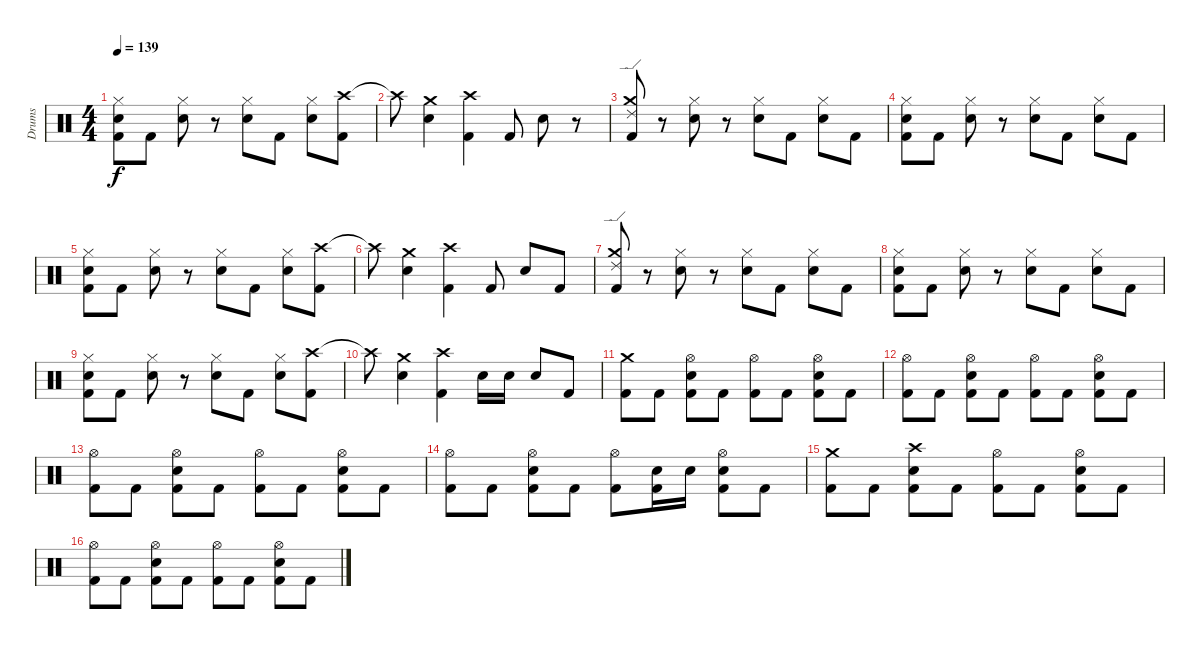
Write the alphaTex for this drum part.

\track ("Drums" "Drums") {instrument percussion}
\staff {score}
\articulation defaults
\ts (4 4)
\tempo 139
\clef neutral
\ks c
("Hi-Hat (closed)" "Electric Snare (hit)" "Kick (hit) 2").8{dy f} "Kick (hit) 2".8 ("Hi-Hat (closed)" "Electric Snare (hit)").8 r.8 ("Hi-Hat (closed)" "Electric Snare (hit)").8 "Kick (hit) 2".8 ("Hi-Hat (closed)" "Electric Snare (hit)").8 ("Crash high (hit)" "Kick (hit) 2").8 |
"Crash high (hit)"{t}.8 ("Crash medium (hit)" "Hand Clap (hit)").4 ("Crash high (hit)" "Kick (hit) 2").4 "Kick (hit) 2".8 "Electric Snare (hit)".8 r.8 |
("Ride (edge) 2" "Crash medium (hit)" "Kick (hit) 2").8 r.8 ("Hi-Hat (closed)" "Electric Snare (hit)").8 r.8 ("Hi-Hat (closed)" "Electric Snare (hit)").8 "Kick (hit) 2".8 ("Hi-Hat (closed)" "Electric Snare (hit)").8 "Kick (hit) 2".8 |
("Hi-Hat (closed)" "Electric Snare (hit)" "Kick (hit) 2").8 "Kick (hit) 2".8 ("Hi-Hat (closed)" "Electric Snare (hit)").8 r.8 ("Hi-Hat (closed)" "Electric Snare (hit)").8 "Kick (hit) 2".8 ("Hi-Hat (closed)" "Electric Snare (hit)").8 "Kick (hit) 2".8 |
("Hi-Hat (closed)" "Electric Snare (hit)" "Kick (hit) 2").8 "Kick (hit) 2".8 ("Hi-Hat (closed)" "Electric Snare (hit)").8 r.8 ("Hi-Hat (closed)" "Electric Snare (hit)").8 "Kick (hit) 2".8 ("Hi-Hat (closed)" "Electric Snare (hit)").8 ("Crash high (hit)" "Kick (hit) 2").8 |
"Crash high (hit)"{t}.8 ("Crash medium (hit)" "Hand Clap (hit)").4 ("Crash high (hit)" "Kick (hit) 2").4 "Kick (hit) 2".8 "Electric Snare (hit)".8 "Kick (hit) 2".8 |
("Ride (edge) 2" "Crash medium (hit)" "Kick (hit) 2").8 r.8 ("Hi-Hat (closed)" "Electric Snare (hit)").8 r.8 ("Hi-Hat (closed)" "Electric Snare (hit)").8 "Kick (hit) 2".8 ("Hi-Hat (closed)" "Electric Snare (hit)").8 "Kick (hit) 2".8 |
("Hi-Hat (closed)" "Electric Snare (hit)" "Kick (hit) 2").8 "Kick (hit) 2".8 ("Hi-Hat (closed)" "Electric Snare (hit)").8 r.8 ("Hi-Hat (closed)" "Electric Snare (hit)").8 "Kick (hit) 2".8 ("Hi-Hat (closed)" "Electric Snare (hit)").8 "Kick (hit) 2".8 |
("Hi-Hat (closed)" "Electric Snare (hit)" "Kick (hit) 2").8 "Kick (hit) 2".8 ("Hi-Hat (closed)" "Electric Snare (hit)").8 r.8 ("Hi-Hat (closed)" "Electric Snare (hit)").8 "Kick (hit) 2".8 ("Hi-Hat (closed)" "Electric Snare (hit)").8 ("Crash high (hit)" "Kick (hit) 2").8 |
"Crash high (hit)"{t}.8 ("Crash medium (hit)" "Hand Clap (hit)").4 ("Crash high (hit)" "Kick (hit) 2").4 "Electric Snare (hit)".16 "Electric Snare (hit)".16 "Electric Snare (hit)".8 "Kick (hit) 2".8 |
("Crash medium (hit)" "Kick (hit) 2").8 "Kick (hit) 2".8 ("Hi-Hat (open)" "Electric Snare (hit)" "Kick (hit) 2").8 "Kick (hit) 2".8 ("Hi-Hat (open)" "Kick (hit) 2").8 "Kick (hit) 2".8 ("Hi-Hat (open)" "Electric Snare (hit)" "Kick (hit) 2").8 "Kick (hit) 2".8 |
("Hi-Hat (open)" "Kick (hit) 2").8 "Kick (hit) 2".8 ("Hi-Hat (open)" "Electric Snare (hit)" "Kick (hit) 2").8 "Kick (hit) 2".8 ("Hi-Hat (open)" "Kick (hit) 2").8 "Kick (hit) 2".8 ("Hi-Hat (open)" "Electric Snare (hit)" "Kick (hit) 2").8 "Kick (hit) 2".8 |
("Hi-Hat (open)" "Kick (hit) 2").8 "Kick (hit) 2".8 ("Hi-Hat (open)" "Electric Snare (hit)" "Kick (hit) 2").8 "Kick (hit) 2".8 ("Hi-Hat (open)" "Kick (hit) 2").8 "Kick (hit) 2".8 ("Hi-Hat (open)" "Electric Snare (hit)" "Kick (hit) 2").8 "Kick (hit) 2".8 |
("Hi-Hat (open)" "Kick (hit) 2").8 "Kick (hit) 2".8 ("Hi-Hat (open)" "Electric Snare (hit)" "Kick (hit) 2").8 "Kick (hit) 2".8 ("Hi-Hat (open)" "Kick (hit) 2").8 ("Electric Snare (hit)" "Kick (hit) 2").16 "Electric Snare (hit)".16 ("Hi-Hat (open)" "Electric Snare (hit)" "Kick (hit) 2").8 "Kick (hit) 2".8 |
("Crash medium (hit)" "Kick (hit) 2").8 "Kick (hit) 2".8 ("Crash high (hit)" "Electric Snare (hit)" "Kick (hit) 2").8 "Kick (hit) 2".8 ("Hi-Hat (open)" "Kick (hit) 2").8 "Kick (hit) 2".8 ("Hi-Hat (open)" "Electric Snare (hit)" "Kick (hit) 2").8 "Kick (hit) 2".8 |
("Hi-Hat (open)" "Kick (hit) 2").8 "Kick (hit) 2".8 ("Hi-Hat (open)" "Electric Snare (hit)" "Kick (hit) 2").8 "Kick (hit) 2".8 ("Hi-Hat (open)" "Kick (hit) 2").8 "Kick (hit) 2".8 ("Hi-Hat (open)" "Electric Snare (hit)" "Kick (hit) 2").8 "Kick (hit) 2".8
